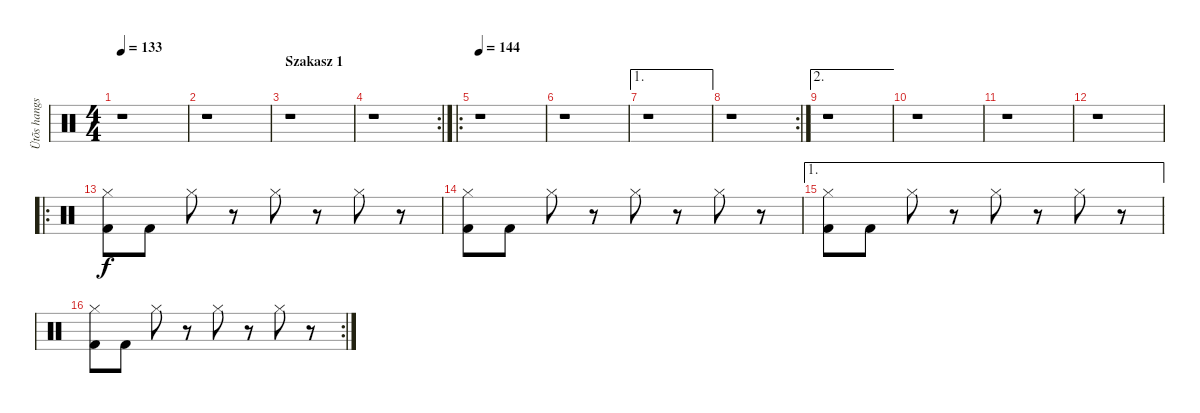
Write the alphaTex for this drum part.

\track ("Ütõs hangszer" "Ütõs hangs") {instrument percussion}
\staff {score}
\articulation defaults
\ts (4 4)
\tempo 133
\clef neutral
\ks c
r.1{dy f} |
r.1 |
\section ("" "Szakasz 1")
r.1 |
\rc 2
r.1 |
\ro
\tempo 144
r.1 |
r.1 |
\ae 1
r.1 |
\rc 2
r.1 |
\ae 2
r.1 |
r.1 |
r.1 |
r.1 |
\ro
("Hi-Hat (closed)" "Kick (hit) 2").8 "Kick (hit) 2".8 "Hi-Hat (closed)".8 r.8 "Hi-Hat (closed)".8 r.8 "Hi-Hat (closed)".8 r.8 |
("Hi-Hat (closed)" "Kick (hit) 2").8 "Kick (hit) 2".8 "Hi-Hat (closed)".8 r.8 "Hi-Hat (closed)".8 r.8 "Hi-Hat (closed)".8 r.8 |
\ae 1
("Hi-Hat (closed)" "Kick (hit) 2").8 "Kick (hit) 2".8 "Hi-Hat (closed)".8 r.8 "Hi-Hat (closed)".8 r.8 "Hi-Hat (closed)".8 r.8 |
\rc 2
("Hi-Hat (closed)" "Kick (hit) 2").8 "Kick (hit) 2".8 "Hi-Hat (closed)".8 r.8 "Hi-Hat (closed)".8 r.8 "Hi-Hat (closed)".8 r.8
